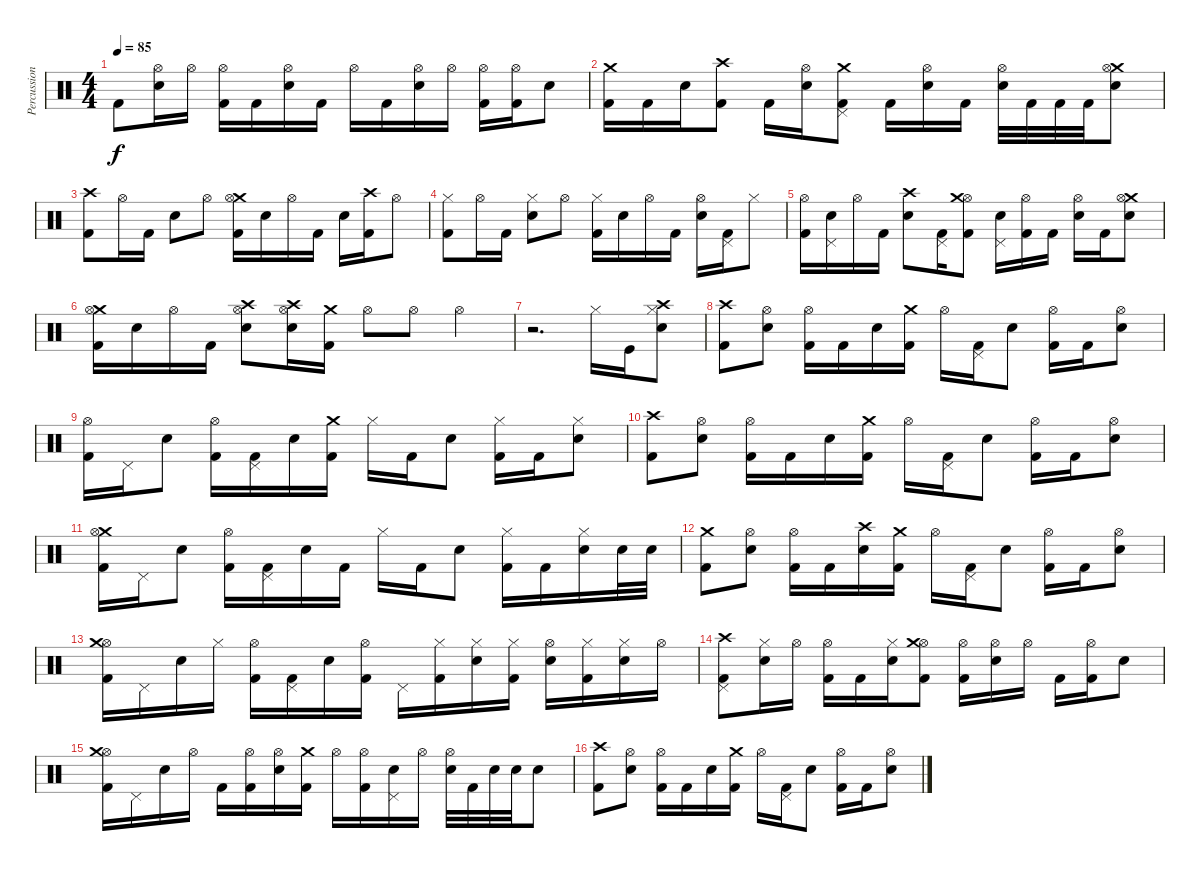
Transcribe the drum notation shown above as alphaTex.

\track ("Percussion" "Percussion") {instrument percussion}
\staff {score}
\articulation defaults
\ts (4 4)
\tempo 85
\clef neutral
\ks c "Kick (hit) 2".8{dy f}
("Snare (hit) 2" "Hi-Hat (open)").16 "Hi-Hat (open)".16 ("Hi-Hat (open)" "Kick (hit) 2").16 "Kick (hit) 2".16 ("Snare (hit) 2" "Hi-Hat (open)").16 "Kick (hit) 2".16 "Hi-Hat (open)".16 "Kick (hit) 2".16 ("Hi-Hat (open)" "Snare (hit) 2").16 "Hi-Hat (open)".16 ("Hi-Hat (open)" "Kick (hit) 2").16 ("Hi-Hat (open)" "Kick (hit) 2").16 "Snare (hit) 2".8 |
("Crash medium (hit)" "Kick (hit) 2").16 "Kick (hit) 2".16 "Snare (hit) 2".16 ("Crash high (hit)" "Kick (hit) 2").8 "Kick (hit) 2".16 ("Hi-Hat (open)" "Snare (hit) 2").16 ("Crash medium (hit)" "Pedal Hi-Hat (hit)" "Kick (hit) 2").8 "Kick (hit) 2".16 ("Snare (hit) 2" "Hi-Hat (open)").16 "Kick (hit) 2".16 ("Hi-Hat (open)" "Snare (hit) 2").32 "Kick (hit) 2".32 "Kick (hit) 2".32 "Kick (hit) 2".32 ("Crash medium (hit)" "Hi-Hat (open)" "Snare (hit) 2").8 |
("Crash high (hit)" "Kick (hit) 2").8 "Hi-Hat (open)".16 "Kick (hit) 2".16 "Snare (hit) 2".8 "Hi-Hat (open)".8 ("Crash medium (hit)" "Hi-Hat (open)" "Kick (hit) 2").16 "Snare (hit) 2".16 "Hi-Hat (open)".16 "Kick (hit) 2".16 "Snare (hit) 2".16 ("Crash high (hit)" "Kick (hit) 2").16 "Hi-Hat (open)".8 |
("Hi-Hat (closed)" "Kick (hit) 2").8 "Hi-Hat (open)".16 "Kick (hit) 2".16 ("Hi-Hat (closed)" "Snare (hit) 2").8 "Hi-Hat (open)".8 ("Hi-Hat (closed)" "Kick (hit) 2").16 "Snare (hit) 2".16 "Hi-Hat (open)".16 "Kick (hit) 2".16 ("Hi-Hat (open)" "Snare (hit) 2").16 ("Pedal Hi-Hat (hit)" "Kick (hit) 2").16 "Hi-Hat (closed)".8 |
("Hi-Hat (open)" "Kick (hit) 2").16 ("Snare (hit) 2" "Pedal Hi-Hat (hit)").16 "Hi-Hat (open)".16 "Kick (hit) 2".16 ("Crash high (hit)" "Snare (hit) 2").8 ("Pedal Hi-Hat (hit)" "Kick (hit) 2").16 ("Hi-Hat (open)" "Kick (hit) 2" "Crash medium (hit)").8 ("Pedal Hi-Hat (hit)" "Snare (hit) 2").16 ("Hi-Hat (open)" "Kick (hit) 2").16 "Kick (hit) 2".16 ("Snare (hit) 2" "Hi-Hat (open)").16 "Kick (hit) 2".16 ("Crash medium (hit)" "Snare (hit) 2" "Hi-Hat (open)").8 |
("Crash medium (hit)" "Hi-Hat (open)" "Kick (hit) 2").16 "Snare (hit) 2".16 "Hi-Hat (open)".16 "Kick (hit) 2".16 ("Crash high (hit)" "Hi-Hat (open)" "Snare (hit) 2").8 ("Crash high (hit)" "Hi-Hat (open)" "Snare (hit) 2").16 ("Crash medium (hit)" "Kick (hit) 2").16 "Hi-Hat (open)".8 "Hi-Hat (open)".8 "Hi-Hat (open)".4 |
r.2{d} "Hi-Hat (closed)".16 "Kick (hit)".16 ("Crash high (hit)" "Snare (hit) 2" "Hi-Hat (closed)").8 |
("Crash high (hit)" "Kick (hit) 2").8 ("Hi-Hat (open)" "Snare (hit) 2").8 ("Hi-Hat (open)" "Kick (hit) 2").16 "Kick (hit) 2".16 "Snare (hit) 2".16 ("Crash medium (hit)" "Kick (hit) 2").16 "Hi-Hat (open)".16 ("Pedal Hi-Hat (hit)" "Kick (hit) 2").16 "Snare (hit) 2".8 ("Hi-Hat (open)" "Kick (hit) 2").16 "Kick (hit) 2".16 ("Hi-Hat (open)" "Snare (hit) 2").8 |
("Hi-Hat (open)" "Kick (hit) 2").16 "Pedal Hi-Hat (hit)".16 "Snare (hit) 2".8 ("Hi-Hat (open)" "Kick (hit) 2").16 ("Pedal Hi-Hat (hit)" "Kick (hit) 2").16 "Snare (hit) 2".16 ("Crash medium (hit)" "Kick (hit) 2").16 "Hi-Hat (closed)".16 "Kick (hit) 2".16 "Snare (hit) 2".8 ("Hi-Hat (closed)" "Kick (hit) 2").16 "Kick (hit) 2".16 ("Hi-Hat (closed)" "Snare (hit) 2").8 |
("Crash high (hit)" "Kick (hit) 2").8 ("Hi-Hat (open)" "Snare (hit) 2").8 ("Hi-Hat (open)" "Kick (hit) 2").16 "Kick (hit) 2".16 "Snare (hit) 2".16 ("Crash medium (hit)" "Kick (hit) 2").16 "Hi-Hat (open)".16 ("Pedal Hi-Hat (hit)" "Kick (hit) 2").16 "Snare (hit) 2".8 ("Hi-Hat (open)" "Kick (hit) 2").16 "Kick (hit) 2".16 ("Hi-Hat (open)" "Snare (hit) 2").8 |
("Crash medium (hit)" "Hi-Hat (open)" "Kick (hit) 2").16 "Pedal Hi-Hat (hit)".16 "Snare (hit) 2".8 ("Hi-Hat (open)" "Kick (hit) 2").16 ("Pedal Hi-Hat (hit)" "Kick (hit) 2").16 "Snare (hit) 2".16 "Kick (hit) 2".16 "Hi-Hat (closed)".16 "Kick (hit) 2".16 "Snare (hit) 2".8 ("Hi-Hat (closed)" "Kick (hit) 2").16 "Kick (hit) 2".16 ("Hi-Hat (closed)" "Snare (hit) 2").16 "Snare (hit) 2".32 "Snare (hit) 2".32 |
("Crash medium (hit)" "Kick (hit) 2").8 ("Hi-Hat (open)" "Snare (hit) 2").8 ("Hi-Hat (open)" "Kick (hit) 2").16 "Kick (hit) 2".16 ("Crash high (hit)" "Snare (hit) 2").16 ("Crash medium (hit)" "Kick (hit) 2").16 "Hi-Hat (open)".16 ("Pedal Hi-Hat (hit)" "Kick (hit) 2").16 "Snare (hit) 2".8 ("Hi-Hat (open)" "Kick (hit) 2").16 "Kick (hit) 2".16 ("Hi-Hat (open)" "Snare (hit) 2").8 |
("Hi-Hat (open)" "Crash medium (hit)" "Kick (hit) 2").16 "Pedal Hi-Hat (hit)".16 "Snare (hit) 2".16 "Hi-Hat (closed)".16 ("Hi-Hat (open)" "Kick (hit) 2").16 ("Pedal Hi-Hat (hit)" "Kick (hit) 2").16 "Snare (hit) 2".16 ("Hi-Hat (open)" "Kick (hit) 2").16 "Pedal Hi-Hat (hit)".16 ("Hi-Hat (closed)" "Kick (hit) 2").16 ("Hi-Hat (closed)" "Snare (hit) 2").16 ("Hi-Hat (closed)" "Kick (hit) 2").16 ("Hi-Hat (open)" "Snare (hit) 2").16 ("Hi-Hat (closed)" "Kick (hit) 2").16 ("Hi-Hat (closed)" "Snare (hit) 2").16 "Hi-Hat (open)".16 |
("Kick (hit) 2" "Crash high (hit)" "Pedal Hi-Hat (hit)").8 ("Hi-Hat (closed)" "Snare (hit) 2").16 "Hi-Hat (open)".16 ("Hi-Hat (open)" "Kick (hit) 2").16 "Kick (hit) 2".16 ("Hi-Hat (closed)" "Snare (hit) 2").16 ("Hi-Hat (open)" "Kick (hit) 2" "Crash medium (hit)").8 ("Hi-Hat (open)" "Kick (hit) 2").16 ("Hi-Hat (open)" "Snare (hit) 2").16 "Hi-Hat (open)".16 "Kick (hit) 2".16 ("Hi-Hat (open)" "Kick (hit) 2").16 "Snare (hit) 2".8 |
("Hi-Hat (open)" "Kick (hit) 2" "Crash medium (hit)").16 "Pedal Hi-Hat (hit)".16 "Snare (hit) 2".16 "Hi-Hat (open)".16 "Kick (hit) 2".16 ("Hi-Hat (open)" "Kick (hit) 2").16 ("Hi-Hat (open)" "Snare (hit) 2").16 ("Crash medium (hit)" "Kick (hit) 2").16 "Hi-Hat (open)".16 ("Hi-Hat (open)" "Kick (hit) 2").16 ("Pedal Hi-Hat (hit)" "Snare (hit) 2").16 "Hi-Hat (open)".16 ("Hi-Hat (open)" "Electric Snare (hit)").32 "Kick (hit) 2".32 "Electric Snare (hit)".32 "Electric Snare (hit)".32 "Electric Snare (hit)".8 |
("Crash high (hit)" "Kick (hit) 2").8 ("Hi-Hat (open)" "Snare (hit) 2").8 ("Hi-Hat (open)" "Kick (hit) 2").16 "Kick (hit) 2".16 "Snare (hit) 2".16 ("Crash medium (hit)" "Kick (hit) 2").16 "Hi-Hat (open)".16 ("Pedal Hi-Hat (hit)" "Kick (hit) 2").16 "Snare (hit) 2".8 ("Hi-Hat (open)" "Kick (hit) 2").16 "Kick (hit) 2".16 ("Hi-Hat (open)" "Snare (hit) 2").8
